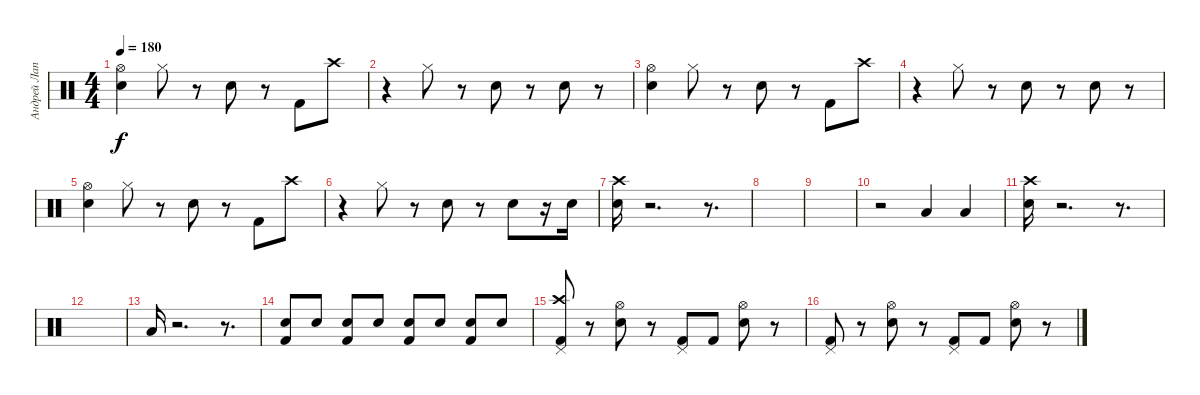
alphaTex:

\track ("Андрей Лаптев" "Андрей Лап") {instrument percussion}
\staff {score}
\articulation defaults
\ts (4 4)
\tempo 180
\clef neutral
\ks c
("Snare (hit) 2" "Hi-Hat (open)").4{dy f} "Hi-Hat (closed)".8 r.8 "Snare (hit) 2".8 r.8 "Kick (hit) 2".8 "Crash high (hit)".8 |
r.4 "Hi-Hat (closed)".8 r.8 "Snare (hit) 2".8 r.8 "Snare (hit) 2".8 r.8 |
("Snare (hit) 2" "Hi-Hat (open)").4 "Hi-Hat (closed)".8 r.8 "Snare (hit) 2".8 r.8 "Kick (hit) 2".8 "Crash high (hit)".8 |
r.4 "Hi-Hat (closed)".8 r.8 "Snare (hit) 2".8 r.8 "Snare (hit) 2".8 r.8 |
("Snare (hit) 2" "Hi-Hat (open)").4 "Hi-Hat (closed)".8 r.8 "Snare (hit) 2".8 r.8 "Kick (hit) 2".8 "Crash high (hit)".8 |
r.4 "Hi-Hat (closed)".8 r.8 "Snare (hit) 2".8 r.8 "Snare (hit) 2".8 r.16 "Snare (hit) 2".16 |
("Snare (hit) 2" "Crash high (hit)").16 r.2{d} r.8{d} |
|
|
r.2 "Low Tom (hit)".4 "Low Tom (hit)".4 |
("Snare (hit) 2" "Crash high (hit)").16 r.2{d} r.8{d} |
|
"Low Tom (hit)".16 r.2{d} r.8{d} |
("Snare (hit) 2" "Kick (hit) 2").8 "Snare (hit) 2".8 ("Snare (hit) 2" "Kick (hit) 2").8 "Snare (hit) 2".8 ("Snare (hit) 2" "Kick (hit) 2").8 "Snare (hit) 2".8 ("Snare (hit) 2" "Kick (hit) 2").8 "Snare (hit) 2".8 |
("Kick (hit) 2" "Crash high (hit)" "Pedal Hi-Hat (hit)").8 r.8 ("Snare (hit) 2" "Hi-Hat (open)").8 r.8 ("Kick (hit) 2" "Pedal Hi-Hat (hit)").8 "Kick (hit) 2".8 ("Snare (hit) 2" "Hi-Hat (open)").8 r.8 |
("Kick (hit) 2" "Pedal Hi-Hat (hit)").8 r.8 ("Snare (hit) 2" "Hi-Hat (open)").8 r.8 ("Kick (hit) 2" "Pedal Hi-Hat (hit)").8 "Kick (hit) 2".8 ("Snare (hit) 2" "Hi-Hat (open)").8 r.8
